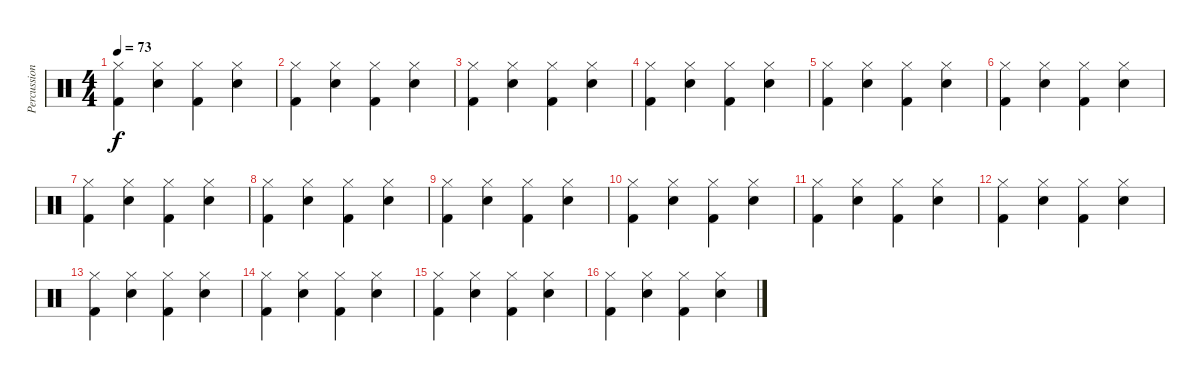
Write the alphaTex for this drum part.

\track ("Percussions" "Percussion") {instrument percussion}
\staff {score}
\articulation defaults
\ts (4 4)
\tempo 73
\clef neutral
\ks c
("Hi-Hat (closed)" "Kick (hit) 2").4{dy f} ("Hi-Hat (closed)" "Electric Snare (hit)").4 ("Hi-Hat (closed)" "Kick (hit) 2").4 ("Hi-Hat (closed)" "Electric Snare (hit)").4 |
("Hi-Hat (closed)" "Kick (hit) 2").4 ("Hi-Hat (closed)" "Electric Snare (hit)").4 ("Hi-Hat (closed)" "Kick (hit) 2").4 ("Hi-Hat (closed)" "Electric Snare (hit)").4 |
("Hi-Hat (closed)" "Kick (hit) 2").4 ("Hi-Hat (closed)" "Electric Snare (hit)").4 ("Hi-Hat (closed)" "Kick (hit) 2").4 ("Hi-Hat (closed)" "Electric Snare (hit)").4 |
("Hi-Hat (closed)" "Kick (hit) 2").4 ("Hi-Hat (closed)" "Electric Snare (hit)").4 ("Hi-Hat (closed)" "Kick (hit) 2").4 ("Hi-Hat (closed)" "Electric Snare (hit)").4 |
("Hi-Hat (closed)" "Kick (hit) 2").4 ("Hi-Hat (closed)" "Electric Snare (hit)").4 ("Hi-Hat (closed)" "Kick (hit) 2").4 ("Hi-Hat (closed)" "Electric Snare (hit)").4 |
("Hi-Hat (closed)" "Kick (hit) 2").4 ("Hi-Hat (closed)" "Electric Snare (hit)").4 ("Hi-Hat (closed)" "Kick (hit) 2").4 ("Hi-Hat (closed)" "Electric Snare (hit)").4 |
("Hi-Hat (closed)" "Kick (hit) 2").4 ("Hi-Hat (closed)" "Electric Snare (hit)").4 ("Hi-Hat (closed)" "Kick (hit) 2").4 ("Hi-Hat (closed)" "Electric Snare (hit)").4 |
("Hi-Hat (closed)" "Kick (hit) 2").4 ("Hi-Hat (closed)" "Electric Snare (hit)").4 ("Hi-Hat (closed)" "Kick (hit) 2").4 ("Hi-Hat (closed)" "Electric Snare (hit)").4 |
("Hi-Hat (closed)" "Kick (hit) 2").4 ("Hi-Hat (closed)" "Electric Snare (hit)").4 ("Hi-Hat (closed)" "Kick (hit) 2").4 ("Hi-Hat (closed)" "Electric Snare (hit)").4 |
("Hi-Hat (closed)" "Kick (hit) 2").4 ("Hi-Hat (closed)" "Electric Snare (hit)").4 ("Hi-Hat (closed)" "Kick (hit) 2").4 ("Hi-Hat (closed)" "Electric Snare (hit)").4 |
("Hi-Hat (closed)" "Kick (hit) 2").4 ("Hi-Hat (closed)" "Electric Snare (hit)").4 ("Hi-Hat (closed)" "Kick (hit) 2").4 ("Hi-Hat (closed)" "Electric Snare (hit)").4 |
("Hi-Hat (closed)" "Kick (hit) 2").4 ("Hi-Hat (closed)" "Electric Snare (hit)").4 ("Hi-Hat (closed)" "Kick (hit) 2").4 ("Hi-Hat (closed)" "Electric Snare (hit)").4 |
("Hi-Hat (closed)" "Kick (hit) 2").4 ("Hi-Hat (closed)" "Electric Snare (hit)").4 ("Hi-Hat (closed)" "Kick (hit) 2").4 ("Hi-Hat (closed)" "Electric Snare (hit)").4 |
("Hi-Hat (closed)" "Kick (hit) 2").4 ("Hi-Hat (closed)" "Electric Snare (hit)").4 ("Hi-Hat (closed)" "Kick (hit) 2").4 ("Hi-Hat (closed)" "Electric Snare (hit)").4 |
("Hi-Hat (closed)" "Kick (hit) 2").4 ("Hi-Hat (closed)" "Electric Snare (hit)").4 ("Hi-Hat (closed)" "Kick (hit) 2").4 ("Hi-Hat (closed)" "Electric Snare (hit)").4 |
("Hi-Hat (closed)" "Kick (hit) 2").4 ("Hi-Hat (closed)" "Electric Snare (hit)").4 ("Hi-Hat (closed)" "Kick (hit) 2").4 ("Hi-Hat (closed)" "Electric Snare (hit)").4
